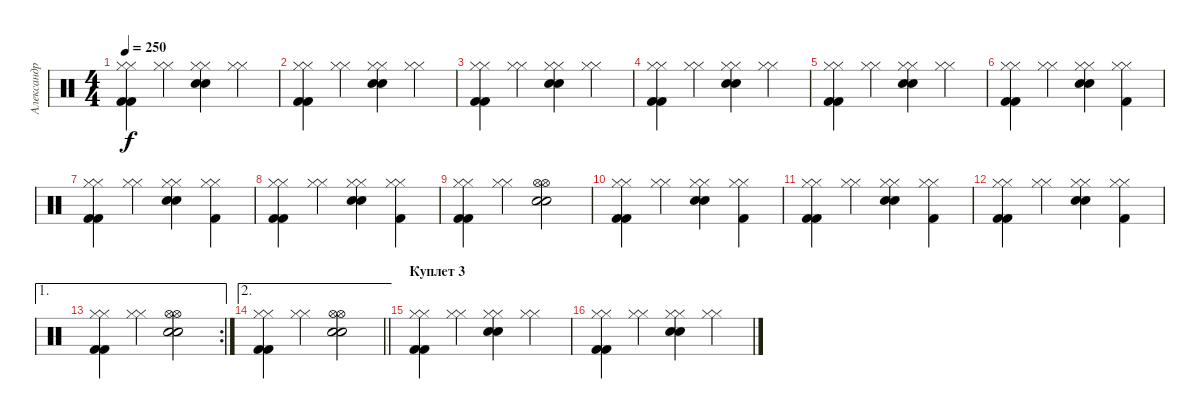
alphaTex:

\track ("Александр Андрюшкин" "Александр ") {instrument percussion}
\staff {score}
\articulation defaults
\ts (4 4)
\tempo 250
\clef neutral
\ks c
("Hi-Hat (closed)" "Hi-Hat (closed)" "Kick (hit) 2" "Kick (hit) 2").4{dy f} ("Hi-Hat (closed)" "Hi-Hat (closed)").4 ("Hi-Hat (closed)" "Hi-Hat (closed)" "Snare (hit) 2" "Snare (hit) 2").4 ("Hi-Hat (closed)" "Hi-Hat (closed)").4 |
("Hi-Hat (closed)" "Hi-Hat (closed)" "Kick (hit) 2" "Kick (hit) 2").4 ("Hi-Hat (closed)" "Hi-Hat (closed)").4 ("Hi-Hat (closed)" "Hi-Hat (closed)" "Snare (hit) 2" "Snare (hit) 2").4 ("Hi-Hat (closed)" "Hi-Hat (closed)").4 |
("Hi-Hat (closed)" "Hi-Hat (closed)" "Kick (hit) 2" "Kick (hit) 2").4 ("Hi-Hat (closed)" "Hi-Hat (closed)").4 ("Hi-Hat (closed)" "Hi-Hat (closed)" "Snare (hit) 2" "Snare (hit) 2").4 ("Hi-Hat (closed)" "Hi-Hat (closed)").4 |
("Hi-Hat (closed)" "Hi-Hat (closed)" "Kick (hit) 2" "Kick (hit) 2").4 ("Hi-Hat (closed)" "Hi-Hat (closed)").4 ("Hi-Hat (closed)" "Hi-Hat (closed)" "Snare (hit) 2" "Snare (hit) 2").4 ("Hi-Hat (closed)" "Hi-Hat (closed)").4 |
("Hi-Hat (closed)" "Hi-Hat (closed)" "Kick (hit) 2" "Kick (hit) 2").4 ("Hi-Hat (closed)" "Hi-Hat (closed)").4 ("Hi-Hat (closed)" "Hi-Hat (closed)" "Snare (hit) 2" "Snare (hit) 2").4 ("Hi-Hat (closed)" "Hi-Hat (closed)").4 |
("Hi-Hat (closed)" "Hi-Hat (closed)" "Kick (hit) 2" "Kick (hit) 2").4 ("Hi-Hat (closed)" "Hi-Hat (closed)").4 ("Hi-Hat (closed)" "Hi-Hat (closed)" "Snare (hit) 2" "Snare (hit) 2").4 ("Hi-Hat (closed)" "Hi-Hat (closed)" "Kick (hit) 2").4 |
("Hi-Hat (closed)" "Hi-Hat (closed)" "Kick (hit) 2" "Kick (hit) 2").4 ("Hi-Hat (closed)" "Hi-Hat (closed)").4 ("Hi-Hat (closed)" "Hi-Hat (closed)" "Snare (hit) 2" "Snare (hit) 2").4 ("Hi-Hat (closed)" "Hi-Hat (closed)" "Kick (hit) 2").4 |
("Hi-Hat (closed)" "Hi-Hat (closed)" "Kick (hit) 2" "Kick (hit) 2").4 ("Hi-Hat (closed)" "Hi-Hat (closed)").4 ("Hi-Hat (closed)" "Hi-Hat (closed)" "Snare (hit) 2" "Snare (hit) 2").4 ("Hi-Hat (closed)" "Hi-Hat (closed)" "Kick (hit) 2").4 |
("Hi-Hat (closed)" "Hi-Hat (closed)" "Kick (hit) 2" "Kick (hit) 2").4 ("Hi-Hat (closed)" "Hi-Hat (closed)").4 ("Hi-Hat (open)" "Hi-Hat (open)" "Snare (hit) 2" "Snare (hit) 2").2 |
("Hi-Hat (closed)" "Hi-Hat (closed)" "Kick (hit) 2" "Kick (hit) 2").4 ("Hi-Hat (closed)" "Hi-Hat (closed)").4 ("Hi-Hat (closed)" "Hi-Hat (closed)" "Snare (hit) 2" "Snare (hit) 2").4 ("Hi-Hat (closed)" "Hi-Hat (closed)" "Kick (hit) 2").4 |
("Hi-Hat (closed)" "Hi-Hat (closed)" "Kick (hit) 2" "Kick (hit) 2").4 ("Hi-Hat (closed)" "Hi-Hat (closed)").4 ("Hi-Hat (closed)" "Hi-Hat (closed)" "Snare (hit) 2" "Snare (hit) 2").4 ("Hi-Hat (closed)" "Hi-Hat (closed)" "Kick (hit) 2").4 |
("Hi-Hat (closed)" "Hi-Hat (closed)" "Kick (hit) 2" "Kick (hit) 2").4 ("Hi-Hat (closed)" "Hi-Hat (closed)").4 ("Hi-Hat (closed)" "Hi-Hat (closed)" "Snare (hit) 2" "Snare (hit) 2").4 ("Hi-Hat (closed)" "Hi-Hat (closed)" "Kick (hit) 2").4 |
\ae 1
\rc 2
("Hi-Hat (closed)" "Hi-Hat (closed)" "Kick (hit) 2" "Kick (hit) 2").4 ("Hi-Hat (closed)" "Hi-Hat (closed)").4 ("Hi-Hat (open)" "Hi-Hat (open)" "Snare (hit) 2" "Snare (hit) 2").2 |
\ae 2
\barLineRight lightlight
("Hi-Hat (closed)" "Hi-Hat (closed)" "Kick (hit) 2" "Kick (hit) 2").4 ("Hi-Hat (closed)" "Hi-Hat (closed)").4 ("Hi-Hat (open)" "Hi-Hat (open)" "Snare (hit) 2" "Snare (hit) 2").2 |
\section ("" "Куплет 3")
("Hi-Hat (closed)" "Hi-Hat (closed)" "Kick (hit) 2" "Kick (hit) 2").4 ("Hi-Hat (closed)" "Hi-Hat (closed)").4 ("Hi-Hat (closed)" "Hi-Hat (closed)" "Snare (hit) 2" "Snare (hit) 2").4 ("Hi-Hat (closed)" "Hi-Hat (closed)").4 |
("Hi-Hat (closed)" "Hi-Hat (closed)" "Kick (hit) 2" "Kick (hit) 2").4 ("Hi-Hat (closed)" "Hi-Hat (closed)").4 ("Hi-Hat (closed)" "Hi-Hat (closed)" "Snare (hit) 2" "Snare (hit) 2").4 ("Hi-Hat (closed)" "Hi-Hat (closed)").4
